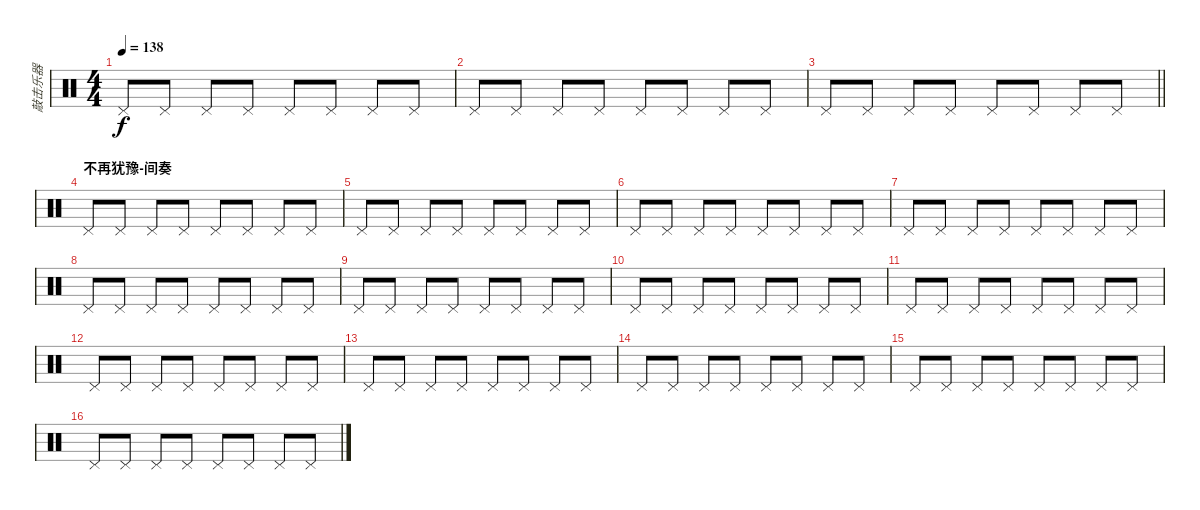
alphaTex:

\track ("敲击乐器" "敲击乐器") {instrument percussion}
\staff {score}
\articulation defaults
\ts (4 4)
\tempo 138
\clef neutral
\ks c "Pedal Hi-Hat (hit)".8{dy f} "Pedal Hi-Hat (hit)".8 "Pedal Hi-Hat (hit)".8 "Pedal Hi-Hat (hit)".8 "Pedal Hi-Hat (hit)".8 "Pedal Hi-Hat (hit)".8 "Pedal Hi-Hat (hit)".8 "Pedal Hi-Hat (hit)".8
|
"Pedal Hi-Hat (hit)".8 "Pedal Hi-Hat (hit)".8 "Pedal Hi-Hat (hit)".8 "Pedal Hi-Hat (hit)".8 "Pedal Hi-Hat (hit)".8 "Pedal Hi-Hat (hit)".8 "Pedal Hi-Hat (hit)".8 "Pedal Hi-Hat (hit)".8 |
\barLineRight lightlight "Pedal Hi-Hat (hit)".8 "Pedal Hi-Hat (hit)".8 "Pedal Hi-Hat (hit)".8 "Pedal Hi-Hat (hit)".8 "Pedal Hi-Hat (hit)".8 "Pedal Hi-Hat (hit)".8 "Pedal Hi-Hat (hit)".8 "Pedal Hi-Hat (hit)".8
|
\section ("" "不再犹豫-间奏")
"Pedal Hi-Hat (hit)".8 "Pedal Hi-Hat (hit)".8 "Pedal Hi-Hat (hit)".8 "Pedal Hi-Hat (hit)".8 "Pedal Hi-Hat (hit)".8 "Pedal Hi-Hat (hit)".8 "Pedal Hi-Hat (hit)".8 "Pedal Hi-Hat (hit)".8 |
"Pedal Hi-Hat (hit)".8 "Pedal Hi-Hat (hit)".8 "Pedal Hi-Hat (hit)".8 "Pedal Hi-Hat (hit)".8 "Pedal Hi-Hat (hit)".8 "Pedal Hi-Hat (hit)".8 "Pedal Hi-Hat (hit)".8 "Pedal Hi-Hat (hit)".8 |
"Pedal Hi-Hat (hit)".8 "Pedal Hi-Hat (hit)".8 "Pedal Hi-Hat (hit)".8 "Pedal Hi-Hat (hit)".8 "Pedal Hi-Hat (hit)".8 "Pedal Hi-Hat (hit)".8 "Pedal Hi-Hat (hit)".8 "Pedal Hi-Hat (hit)".8 |
"Pedal Hi-Hat (hit)".8 "Pedal Hi-Hat (hit)".8 "Pedal Hi-Hat (hit)".8 "Pedal Hi-Hat (hit)".8 "Pedal Hi-Hat (hit)".8 "Pedal Hi-Hat (hit)".8 "Pedal Hi-Hat (hit)".8 "Pedal Hi-Hat (hit)".8 |
"Pedal Hi-Hat (hit)".8 "Pedal Hi-Hat (hit)".8 "Pedal Hi-Hat (hit)".8 "Pedal Hi-Hat (hit)".8 "Pedal Hi-Hat (hit)".8 "Pedal Hi-Hat (hit)".8 "Pedal Hi-Hat (hit)".8 "Pedal Hi-Hat (hit)".8 |
"Pedal Hi-Hat (hit)".8 "Pedal Hi-Hat (hit)".8 "Pedal Hi-Hat (hit)".8 "Pedal Hi-Hat (hit)".8 "Pedal Hi-Hat (hit)".8 "Pedal Hi-Hat (hit)".8 "Pedal Hi-Hat (hit)".8 "Pedal Hi-Hat (hit)".8 |
"Pedal Hi-Hat (hit)".8 "Pedal Hi-Hat (hit)".8 "Pedal Hi-Hat (hit)".8 "Pedal Hi-Hat (hit)".8 "Pedal Hi-Hat (hit)".8 "Pedal Hi-Hat (hit)".8 "Pedal Hi-Hat (hit)".8 "Pedal Hi-Hat (hit)".8 |
"Pedal Hi-Hat (hit)".8 "Pedal Hi-Hat (hit)".8 "Pedal Hi-Hat (hit)".8 "Pedal Hi-Hat (hit)".8 "Pedal Hi-Hat (hit)".8 "Pedal Hi-Hat (hit)".8 "Pedal Hi-Hat (hit)".8 "Pedal Hi-Hat (hit)".8 |
"Pedal Hi-Hat (hit)".8 "Pedal Hi-Hat (hit)".8 "Pedal Hi-Hat (hit)".8 "Pedal Hi-Hat (hit)".8 "Pedal Hi-Hat (hit)".8 "Pedal Hi-Hat (hit)".8 "Pedal Hi-Hat (hit)".8 "Pedal Hi-Hat (hit)".8 |
"Pedal Hi-Hat (hit)".8 "Pedal Hi-Hat (hit)".8 "Pedal Hi-Hat (hit)".8 "Pedal Hi-Hat (hit)".8 "Pedal Hi-Hat (hit)".8 "Pedal Hi-Hat (hit)".8 "Pedal Hi-Hat (hit)".8 "Pedal Hi-Hat (hit)".8 |
"Pedal Hi-Hat (hit)".8 "Pedal Hi-Hat (hit)".8 "Pedal Hi-Hat (hit)".8 "Pedal Hi-Hat (hit)".8 "Pedal Hi-Hat (hit)".8 "Pedal Hi-Hat (hit)".8 "Pedal Hi-Hat (hit)".8 "Pedal Hi-Hat (hit)".8 |
"Pedal Hi-Hat (hit)".8 "Pedal Hi-Hat (hit)".8 "Pedal Hi-Hat (hit)".8 "Pedal Hi-Hat (hit)".8 "Pedal Hi-Hat (hit)".8 "Pedal Hi-Hat (hit)".8 "Pedal Hi-Hat (hit)".8 "Pedal Hi-Hat (hit)".8 |
"Pedal Hi-Hat (hit)".8 "Pedal Hi-Hat (hit)".8 "Pedal Hi-Hat (hit)".8 "Pedal Hi-Hat (hit)".8 "Pedal Hi-Hat (hit)".8 "Pedal Hi-Hat (hit)".8 "Pedal Hi-Hat (hit)".8 "Pedal Hi-Hat (hit)".8
